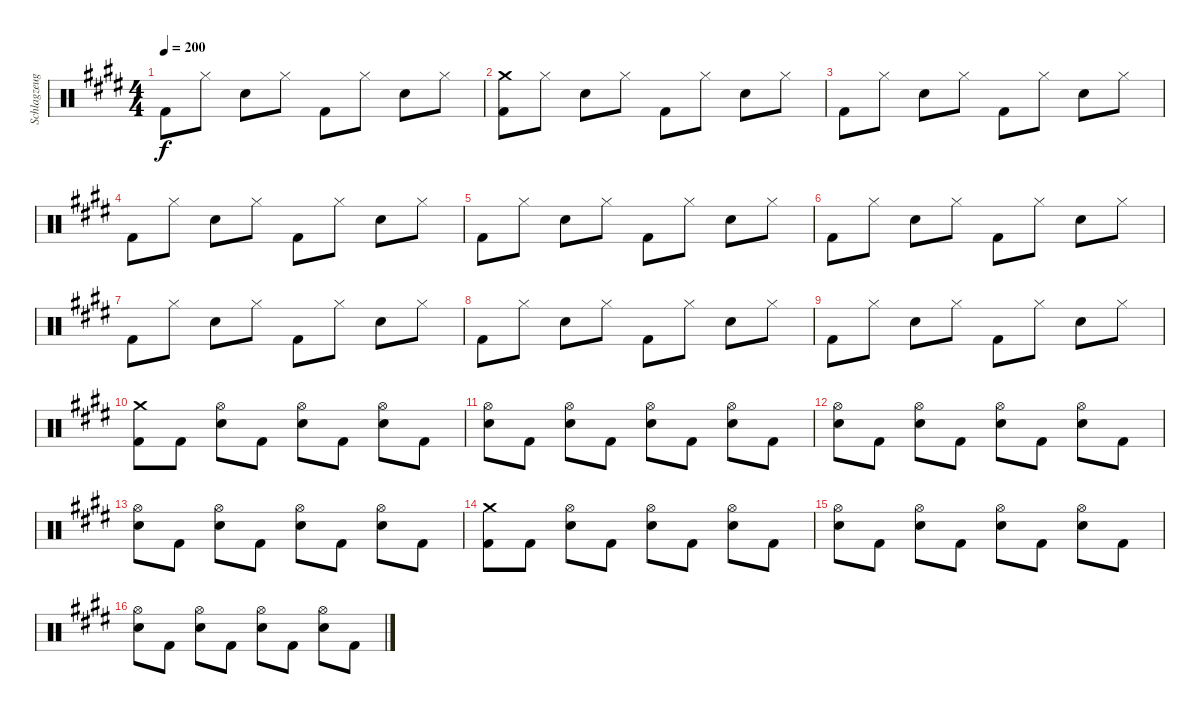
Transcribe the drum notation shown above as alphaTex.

\track ("Schlagzeug" "Schlagzeug") {instrument percussion}
\staff {score}
\articulation defaults
\ts (4 4)
\tempo 200
\clef neutral
\ks e "Kick (hit) 2".8{dy f} "Hi-Hat (closed)".8 "Snare (hit) 2".8 "Hi-Hat (closed)".8 "Kick (hit) 2".8 "Hi-Hat (closed)".8 "Snare (hit) 2".8 "Hi-Hat (closed)".8
|
("Crash medium (hit)" "Kick (hit) 2").8 "Hi-Hat (closed)".8 "Snare (hit) 2".8 "Hi-Hat (closed)".8 "Kick (hit) 2".8 "Hi-Hat (closed)".8 "Snare (hit) 2".8 "Hi-Hat (closed)".8 |
"Kick (hit) 2".8 "Hi-Hat (closed)".8 "Snare (hit) 2".8 "Hi-Hat (closed)".8 "Kick (hit) 2".8 "Hi-Hat (closed)".8 "Snare (hit) 2".8 "Hi-Hat (closed)".8 |
"Kick (hit) 2".8 "Hi-Hat (closed)".8 "Snare (hit) 2".8 "Hi-Hat (closed)".8 "Kick (hit) 2".8 "Hi-Hat (closed)".8 "Snare (hit) 2".8 "Hi-Hat (closed)".8 |
"Kick (hit) 2".8 "Hi-Hat (closed)".8 "Snare (hit) 2".8 "Hi-Hat (closed)".8 "Kick (hit) 2".8 "Hi-Hat (closed)".8 "Snare (hit) 2".8 "Hi-Hat (closed)".8 |
"Kick (hit) 2".8 "Hi-Hat (closed)".8 "Snare (hit) 2".8 "Hi-Hat (closed)".8 "Kick (hit) 2".8 "Hi-Hat (closed)".8 "Snare (hit) 2".8 "Hi-Hat (closed)".8 |
"Kick (hit) 2".8 "Hi-Hat (closed)".8 "Snare (hit) 2".8 "Hi-Hat (closed)".8 "Kick (hit) 2".8 "Hi-Hat (closed)".8 "Snare (hit) 2".8 "Hi-Hat (closed)".8 |
"Kick (hit) 2".8 "Hi-Hat (closed)".8 "Snare (hit) 2".8 "Hi-Hat (closed)".8 "Kick (hit) 2".8 "Hi-Hat (closed)".8 "Snare (hit) 2".8 "Hi-Hat (closed)".8 |
"Kick (hit) 2".8 "Hi-Hat (closed)".8 "Snare (hit) 2".8 "Hi-Hat (closed)".8 "Kick (hit) 2".8 "Hi-Hat (closed)".8 "Snare (hit) 2".8 "Hi-Hat (closed)".8 |
("Crash medium (hit)" "Kick (hit) 2").8 "Kick (hit) 2".8 ("Hi-Hat (open)" "Snare (hit) 2").8 "Kick (hit) 2".8 ("Hi-Hat (open)" "Snare (hit) 2").8 "Kick (hit) 2".8 ("Hi-Hat (open)" "Snare (hit) 2").8 "Kick (hit) 2".8 |
("Hi-Hat (open)" "Snare (hit) 2").8 "Kick (hit) 2".8 ("Hi-Hat (open)" "Snare (hit) 2").8 "Kick (hit) 2".8 ("Hi-Hat (open)" "Snare (hit) 2").8 "Kick (hit) 2".8 ("Hi-Hat (open)" "Snare (hit) 2").8 "Kick (hit) 2".8 |
("Hi-Hat (open)" "Snare (hit) 2").8 "Kick (hit) 2".8 ("Hi-Hat (open)" "Snare (hit) 2").8 "Kick (hit) 2".8 ("Hi-Hat (open)" "Snare (hit) 2").8 "Kick (hit) 2".8 ("Hi-Hat (open)" "Snare (hit) 2").8 "Kick (hit) 2".8 |
("Hi-Hat (open)" "Snare (hit) 2").8 "Kick (hit) 2".8 ("Hi-Hat (open)" "Snare (hit) 2").8 "Kick (hit) 2".8 ("Hi-Hat (open)" "Snare (hit) 2").8 "Kick (hit) 2".8 ("Hi-Hat (open)" "Snare (hit) 2").8 "Kick (hit) 2".8 |
("Crash medium (hit)" "Kick (hit) 2").8 "Kick (hit) 2".8 ("Hi-Hat (open)" "Snare (hit) 2").8 "Kick (hit) 2".8 ("Hi-Hat (open)" "Snare (hit) 2").8 "Kick (hit) 2".8 ("Hi-Hat (open)" "Snare (hit) 2").8 "Kick (hit) 2".8 |
("Hi-Hat (open)" "Snare (hit) 2").8 "Kick (hit) 2".8 ("Hi-Hat (open)" "Snare (hit) 2").8 "Kick (hit) 2".8 ("Hi-Hat (open)" "Snare (hit) 2").8 "Kick (hit) 2".8 ("Hi-Hat (open)" "Snare (hit) 2").8 "Kick (hit) 2".8 |
("Hi-Hat (open)" "Snare (hit) 2").8 "Kick (hit) 2".8 ("Hi-Hat (open)" "Snare (hit) 2").8 "Kick (hit) 2".8 ("Hi-Hat (open)" "Snare (hit) 2").8 "Kick (hit) 2".8 ("Hi-Hat (open)" "Snare (hit) 2").8 "Kick (hit) 2".8
